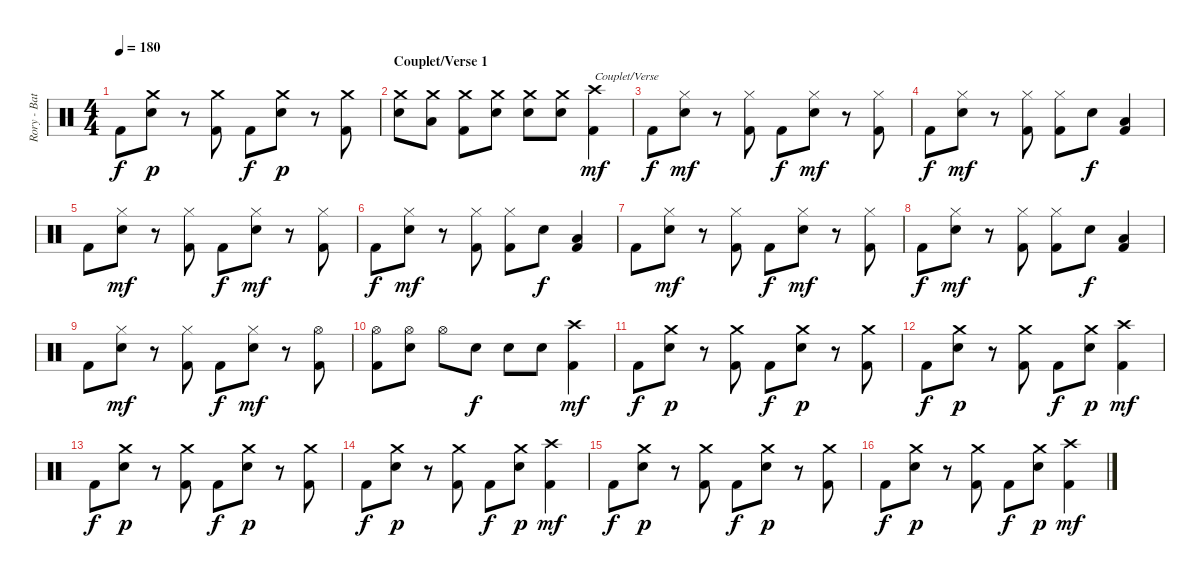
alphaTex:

\track ("Rory - Batterie/Drums" "Rory - Bat") {instrument percussion}
\staff {score}
\articulation defaults
\ts (4 4)
\tempo 180
\clef neutral
\ks c "Kick (hit) 2".8{dy f}
("Crash medium (hit)" "Electric Snare (hit)").8{dy p} r.8 ("Crash medium (hit)" "Kick (hit) 2").8 "Kick (hit) 2".8{dy f} ("Crash medium (hit)" "Electric Snare (hit)").8{dy p} r.8 ("Crash medium (hit)" "Kick (hit) 2").8 |
\section ("" "Couplet/Verse 1")
("Crash medium (hit)" "Electric Snare (hit)").8 ("Crash medium (hit)" "Low Tom (hit)").8 ("Crash medium (hit)" "Kick (hit) 2").8 ("Crash medium (hit)" "Electric Snare (hit)").8 ("Crash medium (hit)" "Electric Snare (hit)").8 ("Crash medium (hit)" "Electric Snare (hit)").8 ("Crash high (hit)" "Kick (hit) 2").4{txt "Couplet/Verse" dy mf} |
"Kick (hit) 2".8{dy f} ("Hi-Hat (closed)" "Electric Snare (hit)").8{dy mf} r.8 ("Hi-Hat (closed)" "Kick (hit) 2").8 "Kick (hit) 2".8{dy f} ("Hi-Hat (closed)" "Electric Snare (hit)").8{dy mf} r.8 ("Hi-Hat (closed)" "Kick (hit) 2").8 |
"Kick (hit) 2".8{dy f} ("Hi-Hat (closed)" "Electric Snare (hit)").8{dy mf} r.8 ("Hi-Hat (closed)" "Kick (hit) 2").8 ("Hi-Hat (closed)" "Kick (hit) 2").8 "Electric Snare (hit)".8{dy f} ("Low Tom (hit)" "Kick (hit) 2").4 |
"Kick (hit) 2".8 ("Hi-Hat (closed)" "Electric Snare (hit)").8{dy mf} r.8 ("Hi-Hat (closed)" "Kick (hit) 2").8 "Kick (hit) 2".8{dy f} ("Hi-Hat (closed)" "Electric Snare (hit)").8{dy mf} r.8 ("Hi-Hat (closed)" "Kick (hit) 2").8 |
"Kick (hit) 2".8{dy f} ("Hi-Hat (closed)" "Electric Snare (hit)").8{dy mf} r.8 ("Hi-Hat (closed)" "Kick (hit) 2").8 ("Hi-Hat (closed)" "Kick (hit) 2").8 "Electric Snare (hit)".8{dy f} ("Low Tom (hit)" "Kick (hit) 2").4 |
"Kick (hit) 2".8 ("Hi-Hat (closed)" "Electric Snare (hit)").8{dy mf} r.8 ("Hi-Hat (closed)" "Kick (hit) 2").8 "Kick (hit) 2".8{dy f} ("Hi-Hat (closed)" "Electric Snare (hit)").8{dy mf} r.8 ("Hi-Hat (closed)" "Kick (hit) 2").8 |
"Kick (hit) 2".8{dy f} ("Hi-Hat (closed)" "Electric Snare (hit)").8{dy mf} r.8 ("Hi-Hat (closed)" "Kick (hit) 2").8 ("Hi-Hat (closed)" "Kick (hit) 2").8 "Electric Snare (hit)".8{dy f} ("Low Tom (hit)" "Kick (hit) 2").4 |
"Kick (hit) 2".8 ("Hi-Hat (closed)" "Electric Snare (hit)").8{dy mf} r.8 ("Hi-Hat (closed)" "Kick (hit) 2").8 "Kick (hit) 2".8{dy f} ("Hi-Hat (closed)" "Electric Snare (hit)").8{dy mf} r.8 ("Hi-Hat (open)" "Kick (hit) 2").8 |
("Hi-Hat (open)" "Kick (hit) 2").8 ("Hi-Hat (open)" "Electric Snare (hit)").8 "Hi-Hat (open)".8 "Electric Snare (hit)".8{dy f} "Electric Snare (hit)".8 "Electric Snare (hit)".8 ("Crash high (hit)" "Kick (hit) 2").4{dy mf} |
"Kick (hit) 2".8{dy f} ("Crash medium (hit)" "Electric Snare (hit)").8{dy p} r.8 ("Crash medium (hit)" "Kick (hit) 2").8 "Kick (hit) 2".8{dy f} ("Crash medium (hit)" "Electric Snare (hit)").8{dy p} r.8 ("Crash medium (hit)" "Kick (hit) 2").8 |
"Kick (hit) 2".8{dy f} ("Crash medium (hit)" "Electric Snare (hit)").8{dy p} r.8 ("Crash medium (hit)" "Kick (hit) 2").8 "Kick (hit) 2".8{dy f} ("Crash medium (hit)" "Electric Snare (hit)").8{dy p} ("Crash high (hit)" "Kick (hit) 2").4{dy mf} |
"Kick (hit) 2".8{dy f} ("Crash medium (hit)" "Electric Snare (hit)").8{dy p} r.8 ("Crash medium (hit)" "Kick (hit) 2").8 "Kick (hit) 2".8{dy f} ("Crash medium (hit)" "Electric Snare (hit)").8{dy p} r.8 ("Crash medium (hit)" "Kick (hit) 2").8 |
"Kick (hit) 2".8{dy f} ("Crash medium (hit)" "Electric Snare (hit)").8{dy p} r.8 ("Crash medium (hit)" "Kick (hit) 2").8 "Kick (hit) 2".8{dy f} ("Crash medium (hit)" "Electric Snare (hit)").8{dy p} ("Crash high (hit)" "Kick (hit) 2").4{dy mf} |
"Kick (hit) 2".8{dy f} ("Crash medium (hit)" "Electric Snare (hit)").8{dy p} r.8 ("Crash medium (hit)" "Kick (hit) 2").8 "Kick (hit) 2".8{dy f} ("Crash medium (hit)" "Electric Snare (hit)").8{dy p} r.8 ("Crash medium (hit)" "Kick (hit) 2").8 |
"Kick (hit) 2".8{dy f} ("Crash medium (hit)" "Electric Snare (hit)").8{dy p} r.8 ("Crash medium (hit)" "Kick (hit) 2").8 "Kick (hit) 2".8{dy f} ("Crash medium (hit)" "Electric Snare (hit)").8{dy p} ("Crash high (hit)" "Kick (hit) 2").4{dy mf}
